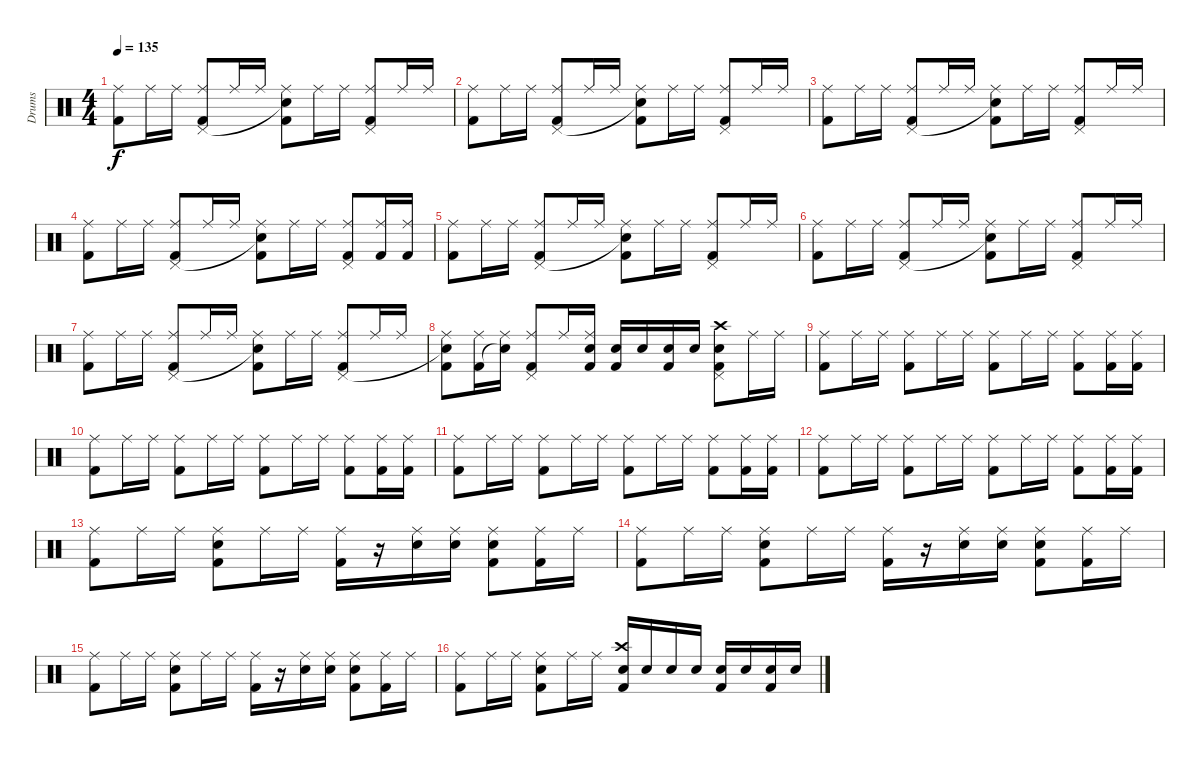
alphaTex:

\track ("Drums" "Drums") {instrument percussion}
\staff {score}
\articulation defaults
\ts (4 4)
\tempo 135
\clef neutral
\ks c
("Ride (middle)" "Kick (hit) 2").8{dy f} "Ride (middle)".16 "Ride (middle)".16 ("Ride (middle)" "Pedal Hi-Hat (hit)" "Kick (hit) 2").8 "Ride (middle)".16 "Ride (middle)".16 ("Ride (middle)" "Snare (hit)"{t} "Kick (hit) 2").8 "Ride (middle)".16 "Ride (middle)".16 ("Ride (middle)" "Pedal Hi-Hat (hit)" "Kick (hit) 2").8 "Ride (middle)".16 "Ride (middle)".16 |
("Ride (middle)" "Kick (hit) 2").8 "Ride (middle)".16 "Ride (middle)".16 ("Ride (middle)" "Pedal Hi-Hat (hit)" "Kick (hit) 2").8 "Ride (middle)".16 "Ride (middle)".16 ("Ride (middle)" "Snare (hit)"{t} "Kick (hit) 2").8 "Ride (middle)".16 "Ride (middle)".16 ("Ride (middle)" "Pedal Hi-Hat (hit)" "Kick (hit) 2").8 "Ride (middle)".16 "Ride (middle)".16 |
("Ride (middle)" "Kick (hit) 2").8 "Ride (middle)".16 "Ride (middle)".16 ("Ride (middle)" "Pedal Hi-Hat (hit)" "Kick (hit) 2").8 "Ride (middle)".16 "Ride (middle)".16 ("Ride (middle)" "Snare (hit)"{t} "Kick (hit) 2").8 "Ride (middle)".16 "Ride (middle)".16 ("Ride (middle)" "Pedal Hi-Hat (hit)" "Kick (hit) 2").8 "Ride (middle)".16 "Ride (middle)".16 |
("Ride (middle)" "Kick (hit) 2").8 "Ride (middle)".16 "Ride (middle)".16 ("Ride (middle)" "Pedal Hi-Hat (hit)" "Kick (hit) 2").8 "Ride (middle)".16 "Ride (middle)".16 ("Ride (middle)" "Snare (hit)"{t} "Kick (hit) 2").8 "Ride (middle)".16 "Ride (middle)".16 ("Ride (middle)" "Pedal Hi-Hat (hit)" "Kick (hit) 2").8 ("Ride (middle)" "Kick (hit) 2").16 ("Ride (middle)" "Kick (hit) 2").16 |
("Ride (middle)" "Kick (hit) 2").8 "Ride (middle)".16 "Ride (middle)".16 ("Ride (middle)" "Pedal Hi-Hat (hit)" "Kick (hit) 2").8 "Ride (middle)".16 "Ride (middle)".16 ("Ride (middle)" "Snare (hit)"{t} "Kick (hit) 2").8 "Ride (middle)".16 "Ride (middle)".16 ("Ride (middle)" "Pedal Hi-Hat (hit)" "Kick (hit) 2").8 "Ride (middle)".16 "Ride (middle)".16 |
("Ride (middle)" "Kick (hit) 2").8 "Ride (middle)".16 "Ride (middle)".16 ("Ride (middle)" "Pedal Hi-Hat (hit)" "Kick (hit) 2").8 "Ride (middle)".16 "Ride (middle)".16 ("Ride (middle)" "Snare (hit)"{t} "Kick (hit) 2").8 "Ride (middle)".16 "Ride (middle)".16 ("Ride (middle)" "Pedal Hi-Hat (hit)" "Kick (hit) 2").8 "Ride (middle)".16 "Ride (middle)".16 |
("Ride (middle)" "Kick (hit) 2").8 "Ride (middle)".16 "Ride (middle)".16 ("Ride (middle)" "Pedal Hi-Hat (hit)" "Kick (hit) 2").8 "Ride (middle)".16 "Ride (middle)".16 ("Ride (middle)" "Snare (hit)"{t} "Kick (hit) 2").8 "Ride (middle)".16 "Ride (middle)".16 ("Ride (middle)" "Pedal Hi-Hat (hit)" "Kick (hit) 2").8 "Ride (middle)".16 "Ride (middle)".16 |
("Ride (middle)" "Snare (hit)"{t} "Kick (hit) 2").8 ("Ride (middle)" "Kick (hit) 2").16 ("Ride (middle)" "Snare (hit)"{t}).16 ("Ride (middle)" "Pedal Hi-Hat (hit)" "Kick (hit) 2").8 "Ride (middle)".16 ("Ride (middle)" "Snare (hit) 2" "Kick (hit) 2").16 ("Snare (hit) 2" "Kick (hit) 2").16 "Snare (hit) 2".16 ("Snare (hit) 2" "Kick (hit) 2").16 "Snare (hit) 2".16 ("Crash high (hit)" "Snare (hit) 2" "Pedal Hi-Hat (hit)" "Kick (hit) 2").8 "Ride (middle)".16 "Ride (middle)".16 |
("Ride (middle)" "Kick (hit) 2").8 "Ride (middle)".16 "Ride (middle)".16 ("Ride (middle)" "Kick (hit) 2").8 "Ride (middle)".16 "Ride (middle)".16 ("Ride (middle)" "Kick (hit) 2").8 "Ride (middle)".16 "Ride (middle)".16 ("Ride (middle)" "Kick (hit) 2").8 ("Ride (middle)" "Kick (hit) 2").16 ("Ride (middle)" "Kick (hit) 2").16 |
("Ride (middle)" "Kick (hit) 2").8 "Ride (middle)".16 "Ride (middle)".16 ("Ride (middle)" "Kick (hit) 2").8 "Ride (middle)".16 "Ride (middle)".16 ("Ride (middle)" "Kick (hit) 2").8 "Ride (middle)".16 "Ride (middle)".16 ("Ride (middle)" "Kick (hit) 2").8 ("Ride (middle)" "Kick (hit) 2").16 ("Ride (middle)" "Kick (hit) 2").16 |
("Ride (middle)" "Kick (hit) 2").8 "Ride (middle)".16 "Ride (middle)".16 ("Ride (middle)" "Kick (hit) 2").8 "Ride (middle)".16 "Ride (middle)".16 ("Ride (middle)" "Kick (hit) 2").8 "Ride (middle)".16 "Ride (middle)".16 ("Ride (middle)" "Kick (hit) 2").8 ("Ride (middle)" "Kick (hit) 2").16 ("Ride (middle)" "Kick (hit) 2").16 |
("Ride (middle)" "Kick (hit) 2").8 "Ride (middle)".16 "Ride (middle)".16 ("Ride (middle)" "Kick (hit) 2").8 "Ride (middle)".16 "Ride (middle)".16 ("Ride (middle)" "Kick (hit) 2").8 "Ride (middle)".16 "Ride (middle)".16 ("Ride (middle)" "Kick (hit) 2").8 ("Ride (middle)" "Kick (hit) 2").16 ("Ride (middle)" "Kick (hit) 2").16 |
("Ride (middle)" "Kick (hit) 2").8 "Ride (middle)".16 "Ride (middle)".16 ("Ride (middle)" "Electric Snare (hit)" "Kick (hit) 2").8 "Ride (middle)".16 "Ride (middle)".16 ("Ride (middle)" "Kick (hit) 2").16 r.16 ("Ride (middle)" "Electric Snare (hit)").16 ("Ride (middle)" "Electric Snare (hit)").16 ("Ride (middle)" "Electric Snare (hit)" "Kick (hit) 2").8 ("Ride (middle)" "Kick (hit) 2").16 "Ride (middle)".16 |
("Ride (middle)" "Kick (hit) 2").8 "Ride (middle)".16 "Ride (middle)".16 ("Ride (middle)" "Electric Snare (hit)" "Kick (hit) 2").8 "Ride (middle)".16 "Ride (middle)".16 ("Ride (middle)" "Kick (hit) 2").16 r.16 ("Ride (middle)" "Electric Snare (hit)").16 ("Ride (middle)" "Electric Snare (hit)").16 ("Ride (middle)" "Electric Snare (hit)" "Kick (hit) 2").8 ("Ride (middle)" "Kick (hit) 2").16 "Ride (middle)".16 |
("Ride (middle)" "Kick (hit) 2").8 "Ride (middle)".16 "Ride (middle)".16 ("Ride (middle)" "Electric Snare (hit)" "Kick (hit) 2").8 "Ride (middle)".16 "Ride (middle)".16 ("Ride (middle)" "Kick (hit) 2").16 r.16 ("Ride (middle)" "Electric Snare (hit)").16 ("Ride (middle)" "Electric Snare (hit)").16 ("Ride (middle)" "Electric Snare (hit)" "Kick (hit) 2").8 ("Ride (middle)" "Kick (hit) 2").16 "Ride (middle)".16 |
("Ride (middle)" "Kick (hit) 2").8 "Ride (middle)".16 "Ride (middle)".16 ("Ride (middle)" "Electric Snare (hit)" "Kick (hit) 2").8 "Ride (middle)".16 "Ride (middle)".16 ("Crash high (hit)" "Electric Snare (hit)" "Kick (hit) 2").16 "Electric Snare (hit)".16 "Electric Snare (hit)".16 "Electric Snare (hit)".16 ("Electric Snare (hit)" "Kick (hit) 2").16 "Electric Snare (hit)".16 ("Electric Snare (hit)" "Kick (hit) 2").16 "Electric Snare (hit)".16
